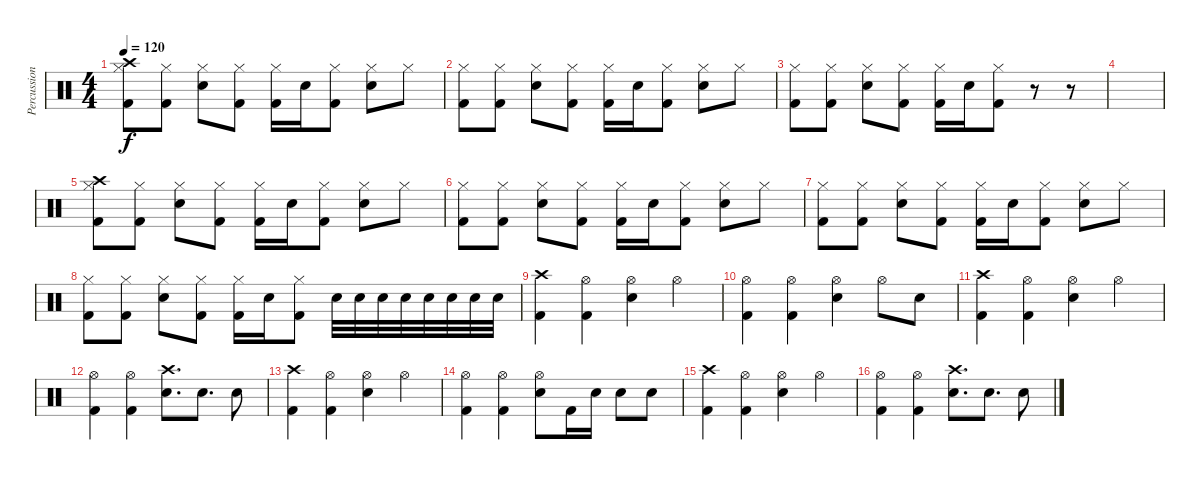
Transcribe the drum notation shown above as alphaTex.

\track ("Percussion" "Percussion") {instrument percussion}
\staff {score}
\articulation defaults
\ts (4 4)
\tempo 120
\clef neutral
\ks c
("Crash high (hit)" "Hi-Hat (closed)" "Kick (hit) 2").8{dy f} ("Hi-Hat (closed)" "Kick (hit) 2").8 ("Hi-Hat (closed)" "Electric Snare (hit)").8 ("Hi-Hat (closed)" "Kick (hit) 2").8 ("Hi-Hat (closed)" "Kick (hit) 2").16 "Electric Snare (hit)".16 ("Hi-Hat (closed)" "Kick (hit) 2").8 ("Hi-Hat (closed)" "Electric Snare (hit)").8 "Hi-Hat (closed)".8 |
("Hi-Hat (closed)" "Kick (hit) 2").8 ("Hi-Hat (closed)" "Kick (hit) 2").8 ("Hi-Hat (closed)" "Electric Snare (hit)").8 ("Hi-Hat (closed)" "Kick (hit) 2").8 ("Hi-Hat (closed)" "Kick (hit) 2").16 "Electric Snare (hit)".16 ("Hi-Hat (closed)" "Kick (hit) 2").8 ("Hi-Hat (closed)" "Electric Snare (hit)").8 "Hi-Hat (closed)".8 |
("Hi-Hat (closed)" "Kick (hit) 2").8 ("Hi-Hat (closed)" "Kick (hit) 2").8 ("Hi-Hat (closed)" "Electric Snare (hit)").8 ("Hi-Hat (closed)" "Kick (hit) 2").8 ("Hi-Hat (closed)" "Kick (hit) 2").16 "Electric Snare (hit)".16 ("Hi-Hat (closed)" "Kick (hit) 2").8 r.8 r.8 |
|
("Crash high (hit)" "Hi-Hat (closed)" "Kick (hit) 2").8 ("Hi-Hat (closed)" "Kick (hit) 2").8 ("Hi-Hat (closed)" "Electric Snare (hit)").8 ("Hi-Hat (closed)" "Kick (hit) 2").8 ("Hi-Hat (closed)" "Kick (hit) 2").16 "Electric Snare (hit)".16 ("Hi-Hat (closed)" "Kick (hit) 2").8 ("Hi-Hat (closed)" "Electric Snare (hit)").8 "Hi-Hat (closed)".8 |
("Hi-Hat (closed)" "Kick (hit) 2").8 ("Hi-Hat (closed)" "Kick (hit) 2").8 ("Hi-Hat (closed)" "Electric Snare (hit)").8 ("Hi-Hat (closed)" "Kick (hit) 2").8 ("Hi-Hat (closed)" "Kick (hit) 2").16 "Electric Snare (hit)".16 ("Hi-Hat (closed)" "Kick (hit) 2").8 ("Hi-Hat (closed)" "Electric Snare (hit)").8 "Hi-Hat (closed)".8 |
("Hi-Hat (closed)" "Kick (hit) 2").8 ("Hi-Hat (closed)" "Kick (hit) 2").8 ("Hi-Hat (closed)" "Electric Snare (hit)").8 ("Hi-Hat (closed)" "Kick (hit) 2").8 ("Hi-Hat (closed)" "Kick (hit) 2").16 "Electric Snare (hit)".16 ("Hi-Hat (closed)" "Kick (hit) 2").8 ("Hi-Hat (closed)" "Electric Snare (hit)").8 "Hi-Hat (closed)".8 |
("Hi-Hat (closed)" "Kick (hit) 2").8 ("Hi-Hat (closed)" "Kick (hit) 2").8 ("Hi-Hat (closed)" "Electric Snare (hit)").8 ("Hi-Hat (closed)" "Kick (hit) 2").8 ("Hi-Hat (closed)" "Kick (hit) 2").16 "Electric Snare (hit)".16 ("Hi-Hat (closed)" "Kick (hit) 2").8 "Electric Snare (hit)".32 "Electric Snare (hit)".32 "Electric Snare (hit)".32 "Electric Snare (hit)".32 "Electric Snare (hit)".32 "Electric Snare (hit)".32 "Electric Snare (hit)".32 "Electric Snare (hit)".32 |
("Crash high (hit)" "Kick (hit) 2").4 ("Hi-Hat (open)" "Kick (hit) 2").4 ("Hi-Hat (open)" "Electric Snare (hit)").4 "Hi-Hat (open)".4 |
("Hi-Hat (open)" "Kick (hit) 2").4 ("Hi-Hat (open)" "Kick (hit) 2").4 ("Hi-Hat (open)" "Electric Snare (hit)").4 "Hi-Hat (open)".8 "Electric Snare (hit)".8 |
("Crash high (hit)" "Kick (hit) 2").4 ("Hi-Hat (open)" "Kick (hit) 2").4 ("Hi-Hat (open)" "Electric Snare (hit)").4 "Hi-Hat (open)".4 |
("Hi-Hat (open)" "Kick (hit) 2").4 ("Hi-Hat (open)" "Kick (hit) 2").4 ("Crash high (hit)" "Electric Snare (hit)").8{d} "Electric Snare (hit)".8{d} "Electric Snare (hit)".8 |
("Crash high (hit)" "Kick (hit) 2").4 ("Hi-Hat (open)" "Kick (hit) 2").4 ("Hi-Hat (open)" "Electric Snare (hit)").4 "Hi-Hat (open)".4 |
("Hi-Hat (open)" "Kick (hit) 2").4 ("Hi-Hat (open)" "Kick (hit) 2").4 ("Hi-Hat (open)" "Electric Snare (hit)").8 "Kick (hit) 2".16 "Electric Snare (hit)".16 "Electric Snare (hit)".8 "Electric Snare (hit)".8 |
("Crash high (hit)" "Kick (hit) 2").4 ("Hi-Hat (open)" "Kick (hit) 2").4 ("Hi-Hat (open)" "Electric Snare (hit)").4 "Hi-Hat (open)".4 |
("Hi-Hat (open)" "Kick (hit) 2").4 ("Hi-Hat (open)" "Kick (hit) 2").4 ("Crash high (hit)" "Electric Snare (hit)").8{d} "Electric Snare (hit)".8{d} "Electric Snare (hit)".8
